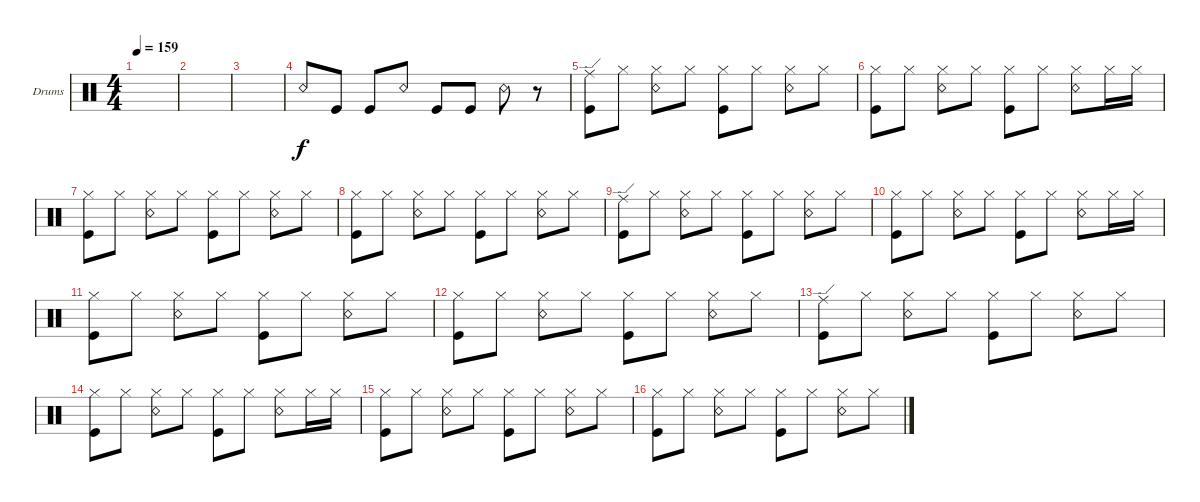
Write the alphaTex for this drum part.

\defaultSystemsLayout 4
\bracketExtendMode groupsimilarinstruments
\firstSystemTrackNameOrientation horizontal
\otherSystemsTrackNameOrientation horizontal
\track ("Drumkit" "Drums") {instrument percussion}
\staff {score}
\articulation defaults
\ts (4 4)
\tempo 159
\clef neutral
\ks c
|
|
|
"Snare (rim shot)".8 "Kick (hit)".8 "Kick (hit)".8 "Snare (rim shot)".8 "Kick (hit)".8 "Kick (hit)".8 "Snare (rim shot)".8 r.8 |
("Ride (edge)" "Kick (hit)").8 "Hi-Hat (closed)".8 ("Hi-Hat (closed)" "Snare (rim shot)").8 "Hi-Hat (closed)".8 ("Hi-Hat (closed)" "Kick (hit)").8 "Hi-Hat (closed)".8 ("Hi-Hat (closed)" "Snare (rim shot)").8 "Hi-Hat (closed)".8 |
("Hi-Hat (closed)" "Kick (hit)").8 "Hi-Hat (closed)".8 ("Hi-Hat (closed)" "Snare (rim shot)").8 "Hi-Hat (closed)".8 ("Hi-Hat (closed)" "Kick (hit)").8 "Hi-Hat (closed)".8 ("Hi-Hat (closed)" "Snare (rim shot)").8 "Hi-Hat (closed)".16 "Hi-Hat (closed)".16 |
("Hi-Hat (closed)" "Kick (hit)").8 "Hi-Hat (closed)".8 ("Hi-Hat (closed)" "Snare (rim shot)").8 "Hi-Hat (closed)".8 ("Hi-Hat (closed)" "Kick (hit)").8 "Hi-Hat (closed)".8 ("Hi-Hat (closed)" "Snare (rim shot)").8 "Hi-Hat (closed)".8 |
("Hi-Hat (closed)" "Kick (hit)").8 "Hi-Hat (closed)".8 ("Hi-Hat (closed)" "Snare (rim shot)").8 "Hi-Hat (closed)".8 ("Hi-Hat (closed)" "Kick (hit)").8 "Hi-Hat (closed)".8 ("Hi-Hat (closed)" "Snare (rim shot)").8 "Hi-Hat (closed)".8 |
("Ride (edge)" "Kick (hit)").8 "Hi-Hat (closed)".8 ("Hi-Hat (closed)" "Snare (rim shot)").8 "Hi-Hat (closed)".8 ("Hi-Hat (closed)" "Kick (hit)").8 "Hi-Hat (closed)".8 ("Hi-Hat (closed)" "Snare (rim shot)").8 "Hi-Hat (closed)".8 |
("Hi-Hat (closed)" "Kick (hit)").8 "Hi-Hat (closed)".8 ("Hi-Hat (closed)" "Snare (rim shot)").8 "Hi-Hat (closed)".8 ("Hi-Hat (closed)" "Kick (hit)").8 "Hi-Hat (closed)".8 ("Hi-Hat (closed)" "Snare (rim shot)").8 "Hi-Hat (closed)".16 "Hi-Hat (closed)".16 |
("Hi-Hat (closed)" "Kick (hit)").8 "Hi-Hat (closed)".8 ("Hi-Hat (closed)" "Snare (rim shot)").8 "Hi-Hat (closed)".8 ("Hi-Hat (closed)" "Kick (hit)").8 "Hi-Hat (closed)".8 ("Hi-Hat (closed)" "Snare (rim shot)").8 "Hi-Hat (closed)".8 |
("Hi-Hat (closed)" "Kick (hit)").8 "Hi-Hat (closed)".8 ("Hi-Hat (closed)" "Snare (rim shot)").8 "Hi-Hat (closed)".8 ("Hi-Hat (closed)" "Kick (hit)").8 "Hi-Hat (closed)".8 ("Hi-Hat (closed)" "Snare (rim shot)").8 "Hi-Hat (closed)".8 |
("Ride (edge)" "Kick (hit)").8 "Hi-Hat (closed)".8 ("Hi-Hat (closed)" "Snare (rim shot)").8 "Hi-Hat (closed)".8 ("Hi-Hat (closed)" "Kick (hit)").8 "Hi-Hat (closed)".8 ("Hi-Hat (closed)" "Snare (rim shot)").8 "Hi-Hat (closed)".8 |
("Hi-Hat (closed)" "Kick (hit)").8 "Hi-Hat (closed)".8 ("Hi-Hat (closed)" "Snare (rim shot)").8 "Hi-Hat (closed)".8 ("Hi-Hat (closed)" "Kick (hit)").8 "Hi-Hat (closed)".8 ("Hi-Hat (closed)" "Snare (rim shot)").8 "Hi-Hat (closed)".16 "Hi-Hat (closed)".16 |
("Hi-Hat (closed)" "Kick (hit)").8 "Hi-Hat (closed)".8 ("Hi-Hat (closed)" "Snare (rim shot)").8 "Hi-Hat (closed)".8 ("Hi-Hat (closed)" "Kick (hit)").8 "Hi-Hat (closed)".8 ("Hi-Hat (closed)" "Snare (rim shot)").8 "Hi-Hat (closed)".8 |
("Hi-Hat (closed)" "Kick (hit)").8 "Hi-Hat (closed)".8 ("Hi-Hat (closed)" "Snare (rim shot)").8 "Hi-Hat (closed)".8 ("Hi-Hat (closed)" "Kick (hit)").8 "Hi-Hat (closed)".8 ("Hi-Hat (closed)" "Snare (rim shot)").8 "Hi-Hat (closed)".8
